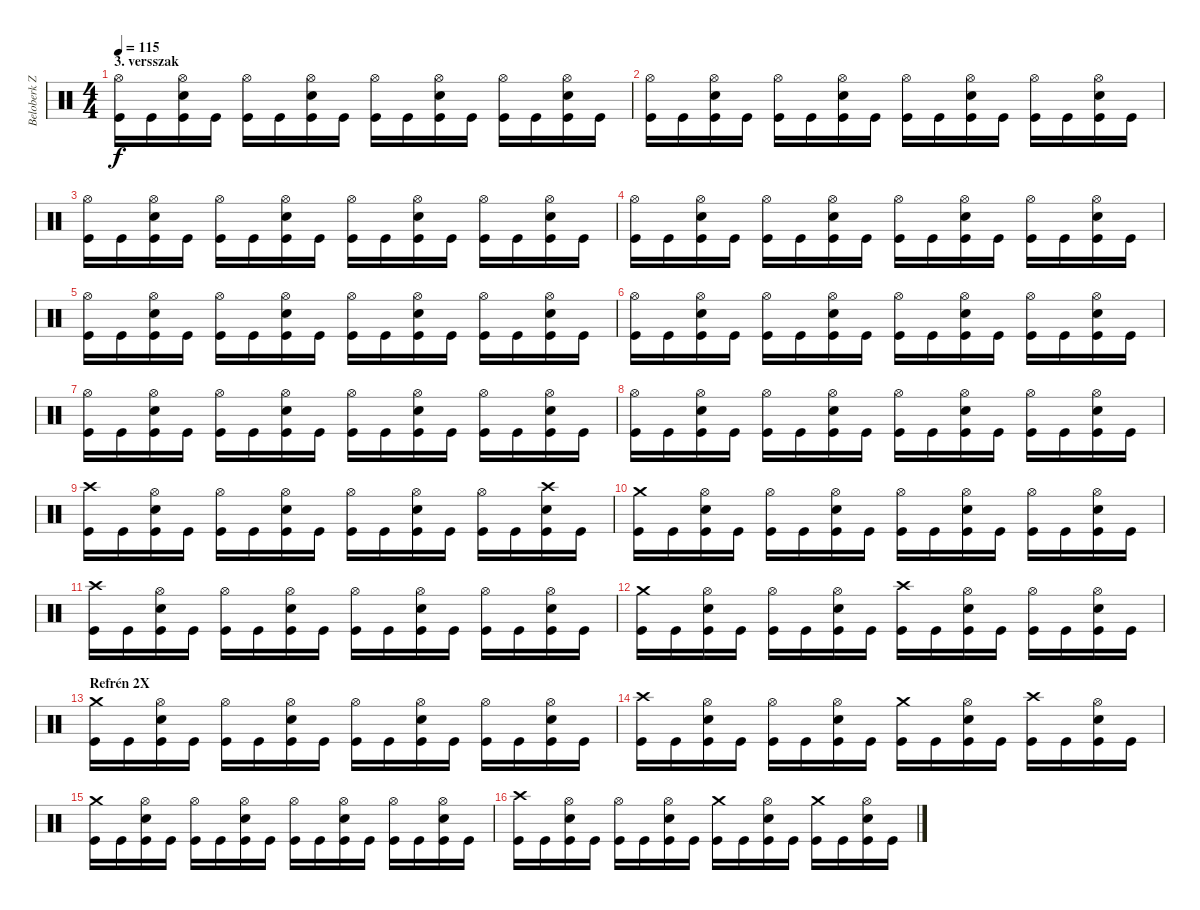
\track ("Beloberk Zsolt /dob/" "Beloberk Z") {instrument percussion}
\staff {score}
\articulation defaults
\ts (4 4)
\section ("" "3. versszak")
\tempo 115
\clef neutral
\ks c
("Hi-Hat (open)" "Kick (hit)").16{dy f} "Kick (hit)".16 ("Hi-Hat (open)" "Electric Snare (hit)" "Kick (hit)").16 "Kick (hit)".16 ("Hi-Hat (open)" "Kick (hit)").16 "Kick (hit)".16 ("Hi-Hat (open)" "Electric Snare (hit)" "Kick (hit)").16 "Kick (hit)".16 ("Hi-Hat (open)" "Kick (hit)").16 "Kick (hit)".16 ("Hi-Hat (open)" "Electric Snare (hit)" "Kick (hit)").16 "Kick (hit)".16 ("Hi-Hat (open)" "Kick (hit)").16 "Kick (hit)".16 ("Hi-Hat (open)" "Electric Snare (hit)" "Kick (hit)").16 "Kick (hit)".16 |
("Hi-Hat (open)" "Kick (hit)").16 "Kick (hit)".16 ("Hi-Hat (open)" "Electric Snare (hit)" "Kick (hit)").16 "Kick (hit)".16 ("Hi-Hat (open)" "Kick (hit)").16 "Kick (hit)".16 ("Hi-Hat (open)" "Electric Snare (hit)" "Kick (hit)").16 "Kick (hit)".16 ("Hi-Hat (open)" "Kick (hit)").16 "Kick (hit)".16 ("Hi-Hat (open)" "Electric Snare (hit)" "Kick (hit)").16 "Kick (hit)".16 ("Hi-Hat (open)" "Kick (hit)").16 "Kick (hit)".16 ("Hi-Hat (open)" "Electric Snare (hit)" "Kick (hit)").16 "Kick (hit)".16 |
("Hi-Hat (open)" "Kick (hit)").16 "Kick (hit)".16 ("Hi-Hat (open)" "Electric Snare (hit)" "Kick (hit)").16 "Kick (hit)".16 ("Hi-Hat (open)" "Kick (hit)").16 "Kick (hit)".16 ("Hi-Hat (open)" "Electric Snare (hit)" "Kick (hit)").16 "Kick (hit)".16 ("Hi-Hat (open)" "Kick (hit)").16 "Kick (hit)".16 ("Hi-Hat (open)" "Electric Snare (hit)" "Kick (hit)").16 "Kick (hit)".16 ("Hi-Hat (open)" "Kick (hit)").16 "Kick (hit)".16 ("Hi-Hat (open)" "Electric Snare (hit)" "Kick (hit)").16 "Kick (hit)".16 |
("Hi-Hat (open)" "Kick (hit)").16 "Kick (hit)".16 ("Hi-Hat (open)" "Electric Snare (hit)" "Kick (hit)").16 "Kick (hit)".16 ("Hi-Hat (open)" "Kick (hit)").16 "Kick (hit)".16 ("Hi-Hat (open)" "Electric Snare (hit)" "Kick (hit)").16 "Kick (hit)".16 ("Hi-Hat (open)" "Kick (hit)").16 "Kick (hit)".16 ("Hi-Hat (open)" "Electric Snare (hit)" "Kick (hit)").16 "Kick (hit)".16 ("Hi-Hat (open)" "Kick (hit)").16 "Kick (hit)".16 ("Hi-Hat (open)" "Electric Snare (hit)" "Kick (hit)").16 "Kick (hit)".16 |
("Hi-Hat (open)" "Kick (hit)").16 "Kick (hit)".16 ("Hi-Hat (open)" "Electric Snare (hit)" "Kick (hit)").16 "Kick (hit)".16 ("Hi-Hat (open)" "Kick (hit)").16 "Kick (hit)".16 ("Hi-Hat (open)" "Electric Snare (hit)" "Kick (hit)").16 "Kick (hit)".16 ("Hi-Hat (open)" "Kick (hit)").16 "Kick (hit)".16 ("Hi-Hat (open)" "Electric Snare (hit)" "Kick (hit)").16 "Kick (hit)".16 ("Hi-Hat (open)" "Kick (hit)").16 "Kick (hit)".16 ("Hi-Hat (open)" "Electric Snare (hit)" "Kick (hit)").16 "Kick (hit)".16 |
("Hi-Hat (open)" "Kick (hit)").16 "Kick (hit)".16 ("Hi-Hat (open)" "Electric Snare (hit)" "Kick (hit)").16 "Kick (hit)".16 ("Hi-Hat (open)" "Kick (hit)").16 "Kick (hit)".16 ("Hi-Hat (open)" "Electric Snare (hit)" "Kick (hit)").16 "Kick (hit)".16 ("Hi-Hat (open)" "Kick (hit)").16 "Kick (hit)".16 ("Hi-Hat (open)" "Electric Snare (hit)" "Kick (hit)").16 "Kick (hit)".16 ("Hi-Hat (open)" "Kick (hit)").16 "Kick (hit)".16 ("Hi-Hat (open)" "Electric Snare (hit)" "Kick (hit)").16 "Kick (hit)".16 |
("Hi-Hat (open)" "Kick (hit)").16 "Kick (hit)".16 ("Hi-Hat (open)" "Electric Snare (hit)" "Kick (hit)").16 "Kick (hit)".16 ("Hi-Hat (open)" "Kick (hit)").16 "Kick (hit)".16 ("Hi-Hat (open)" "Electric Snare (hit)" "Kick (hit)").16 "Kick (hit)".16 ("Hi-Hat (open)" "Kick (hit)").16 "Kick (hit)".16 ("Hi-Hat (open)" "Electric Snare (hit)" "Kick (hit)").16 "Kick (hit)".16 ("Hi-Hat (open)" "Kick (hit)").16 "Kick (hit)".16 ("Hi-Hat (open)" "Electric Snare (hit)" "Kick (hit)").16 "Kick (hit)".16 |
("Hi-Hat (open)" "Kick (hit)").16 "Kick (hit)".16 ("Hi-Hat (open)" "Electric Snare (hit)" "Kick (hit)").16 "Kick (hit)".16 ("Hi-Hat (open)" "Kick (hit)").16 "Kick (hit)".16 ("Hi-Hat (open)" "Electric Snare (hit)" "Kick (hit)").16 "Kick (hit)".16 ("Hi-Hat (open)" "Kick (hit)").16 "Kick (hit)".16 ("Hi-Hat (open)" "Electric Snare (hit)" "Kick (hit)").16 "Kick (hit)".16 ("Hi-Hat (open)" "Kick (hit)").16 "Kick (hit)".16 ("Hi-Hat (open)" "Electric Snare (hit)" "Kick (hit)").16 "Kick (hit)".16 |
("Crash high (hit)" "Kick (hit)").16 "Kick (hit)".16 ("Hi-Hat (open)" "Electric Snare (hit)" "Kick (hit)").16 "Kick (hit)".16 ("Hi-Hat (open)" "Kick (hit)").16 "Kick (hit)".16 ("Hi-Hat (open)" "Electric Snare (hit)" "Kick (hit)").16 "Kick (hit)".16 ("Hi-Hat (open)" "Kick (hit)").16 "Kick (hit)".16 ("Hi-Hat (open)" "Electric Snare (hit)" "Kick (hit)").16 "Kick (hit)".16 ("Hi-Hat (open)" "Kick (hit)").16 "Kick (hit)".16 ("Crash high (hit)" "Electric Snare (hit)" "Kick (hit)").16 "Kick (hit)".16 |
("Crash medium (hit)" "Kick (hit)").16 "Kick (hit)".16 ("Hi-Hat (open)" "Electric Snare (hit)" "Kick (hit)").16 "Kick (hit)".16 ("Hi-Hat (open)" "Kick (hit)").16 "Kick (hit)".16 ("Hi-Hat (open)" "Electric Snare (hit)" "Kick (hit)").16 "Kick (hit)".16 ("Hi-Hat (open)" "Kick (hit)").16 "Kick (hit)".16 ("Hi-Hat (open)" "Electric Snare (hit)" "Kick (hit)").16 "Kick (hit)".16 ("Hi-Hat (open)" "Kick (hit)").16 "Kick (hit)".16 ("Hi-Hat (open)" "Electric Snare (hit)" "Kick (hit)").16 "Kick (hit)".16 |
("Crash high (hit)" "Kick (hit)").16 "Kick (hit)".16 ("Hi-Hat (open)" "Electric Snare (hit)" "Kick (hit)").16 "Kick (hit)".16 ("Hi-Hat (open)" "Kick (hit)").16 "Kick (hit)".16 ("Hi-Hat (open)" "Electric Snare (hit)" "Kick (hit)").16 "Kick (hit)".16 ("Hi-Hat (open)" "Kick (hit)").16 "Kick (hit)".16 ("Hi-Hat (open)" "Electric Snare (hit)" "Kick (hit)").16 "Kick (hit)".16 ("Hi-Hat (open)" "Kick (hit)").16 "Kick (hit)".16 ("Hi-Hat (open)" "Electric Snare (hit)" "Kick (hit)").16 "Kick (hit)".16 |
("Crash medium (hit)" "Kick (hit)").16 "Kick (hit)".16 ("Hi-Hat (open)" "Electric Snare (hit)" "Kick (hit)").16 "Kick (hit)".16 ("Hi-Hat (open)" "Kick (hit)").16 "Kick (hit)".16 ("Hi-Hat (open)" "Electric Snare (hit)" "Kick (hit)").16 "Kick (hit)".16 ("Crash high (hit)" "Kick (hit)").16 "Kick (hit)".16 ("Hi-Hat (open)" "Electric Snare (hit)" "Kick (hit)").16 "Kick (hit)".16 ("Hi-Hat (open)" "Kick (hit)").16 "Kick (hit)".16 ("Hi-Hat (open)" "Electric Snare (hit)" "Kick (hit)").16 "Kick (hit)".16 |
\section ("" "Refrén 2X")
("Crash medium (hit)" "Kick (hit)").16 "Kick (hit)".16 ("Hi-Hat (open)" "Electric Snare (hit)" "Kick (hit)").16 "Kick (hit)".16 ("Hi-Hat (open)" "Kick (hit)").16 "Kick (hit)".16 ("Hi-Hat (open)" "Electric Snare (hit)" "Kick (hit)").16 "Kick (hit)".16 ("Hi-Hat (open)" "Kick (hit)").16 "Kick (hit)".16 ("Hi-Hat (open)" "Electric Snare (hit)" "Kick (hit)").16 "Kick (hit)".16 ("Hi-Hat (open)" "Kick (hit)").16 "Kick (hit)".16 ("Hi-Hat (open)" "Electric Snare (hit)" "Kick (hit)").16 "Kick (hit)".16 |
("Crash high (hit)" "Kick (hit)").16 "Kick (hit)".16 ("Hi-Hat (open)" "Electric Snare (hit)" "Kick (hit)").16 "Kick (hit)".16 ("Hi-Hat (open)" "Kick (hit)").16 "Kick (hit)".16 ("Hi-Hat (open)" "Electric Snare (hit)" "Kick (hit)").16 "Kick (hit)".16 ("Crash medium (hit)" "Kick (hit)").16 "Kick (hit)".16 ("Hi-Hat (open)" "Electric Snare (hit)" "Kick (hit)").16 "Kick (hit)".16 ("Crash high (hit)" "Kick (hit)").16 "Kick (hit)".16 ("Hi-Hat (open)" "Electric Snare (hit)" "Kick (hit)").16 "Kick (hit)".16 |
("Crash medium (hit)" "Kick (hit)").16 "Kick (hit)".16 ("Hi-Hat (open)" "Electric Snare (hit)" "Kick (hit)").16 "Kick (hit)".16 ("Hi-Hat (open)" "Kick (hit)").16 "Kick (hit)".16 ("Hi-Hat (open)" "Electric Snare (hit)" "Kick (hit)").16 "Kick (hit)".16 ("Hi-Hat (open)" "Kick (hit)").16 "Kick (hit)".16 ("Hi-Hat (open)" "Electric Snare (hit)" "Kick (hit)").16 "Kick (hit)".16 ("Hi-Hat (open)" "Kick (hit)").16 "Kick (hit)".16 ("Hi-Hat (open)" "Electric Snare (hit)" "Kick (hit)").16 "Kick (hit)".16 |
("Crash high (hit)" "Kick (hit)").16 "Kick (hit)".16 ("Hi-Hat (open)" "Electric Snare (hit)" "Kick (hit)").16 "Kick (hit)".16 ("Hi-Hat (open)" "Kick (hit)").16 "Kick (hit)".16 ("Hi-Hat (open)" "Electric Snare (hit)" "Kick (hit)").16 "Kick (hit)".16 ("Crash medium (hit)" "Kick (hit)").16 "Kick (hit)".16 ("Hi-Hat (open)" "Electric Snare (hit)" "Kick (hit)").16 "Kick (hit)".16 ("Crash medium (hit)" "Kick (hit)").16 "Kick (hit)".16 ("Hi-Hat (open)" "Electric Snare (hit)" "Kick (hit)").16 "Kick (hit)".16
